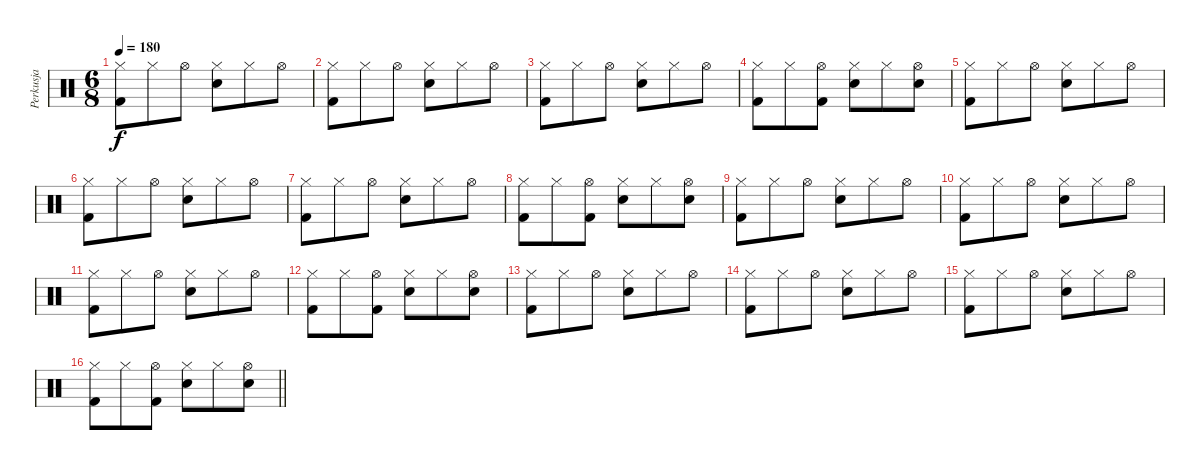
\track ("Perkusja" "Perkusja") {instrument percussion}
\staff {score}
\articulation defaults
\ts (6 8)
\tempo 180
\clef neutral
\ks c
("Hi-Hat (closed)" "Kick (hit) 2").8{dy f} "Hi-Hat (closed)".8 "Hi-Hat (open)".8 ("Hi-Hat (closed)" "Snare (hit) 2").8 "Hi-Hat (closed)".8 "Hi-Hat (open)".8 |
("Hi-Hat (closed)" "Kick (hit) 2").8 "Hi-Hat (closed)".8 "Hi-Hat (open)".8 ("Hi-Hat (closed)" "Snare (hit) 2").8 "Hi-Hat (closed)".8 "Hi-Hat (open)".8 |
("Hi-Hat (closed)" "Kick (hit) 2").8 "Hi-Hat (closed)".8 "Hi-Hat (open)".8 ("Hi-Hat (closed)" "Snare (hit) 2").8 "Hi-Hat (closed)".8 "Hi-Hat (open)".8 |
("Hi-Hat (closed)" "Kick (hit) 2").8 "Hi-Hat (closed)".8 ("Hi-Hat (open)" "Kick (hit) 2").8 ("Hi-Hat (closed)" "Snare (hit) 2").8 "Hi-Hat (closed)".8 ("Hi-Hat (open)" "Snare (hit) 2").8 |
("Hi-Hat (closed)" "Kick (hit) 2").8 "Hi-Hat (closed)".8 "Hi-Hat (open)".8 ("Hi-Hat (closed)" "Snare (hit) 2").8 "Hi-Hat (closed)".8 "Hi-Hat (open)".8 |
("Hi-Hat (closed)" "Kick (hit) 2").8 "Hi-Hat (closed)".8 "Hi-Hat (open)".8 ("Hi-Hat (closed)" "Snare (hit) 2").8 "Hi-Hat (closed)".8 "Hi-Hat (open)".8 |
("Hi-Hat (closed)" "Kick (hit) 2").8 "Hi-Hat (closed)".8 "Hi-Hat (open)".8 ("Hi-Hat (closed)" "Snare (hit) 2").8 "Hi-Hat (closed)".8 "Hi-Hat (open)".8 |
("Hi-Hat (closed)" "Kick (hit) 2").8 "Hi-Hat (closed)".8 ("Hi-Hat (open)" "Kick (hit) 2").8 ("Hi-Hat (closed)" "Snare (hit) 2").8 "Hi-Hat (closed)".8 ("Hi-Hat (open)" "Snare (hit) 2").8 |
("Hi-Hat (closed)" "Kick (hit) 2").8 "Hi-Hat (closed)".8 "Hi-Hat (open)".8 ("Hi-Hat (closed)" "Snare (hit) 2").8 "Hi-Hat (closed)".8 "Hi-Hat (open)".8 |
("Hi-Hat (closed)" "Kick (hit) 2").8 "Hi-Hat (closed)".8 "Hi-Hat (open)".8 ("Hi-Hat (closed)" "Snare (hit) 2").8 "Hi-Hat (closed)".8 "Hi-Hat (open)".8 |
("Hi-Hat (closed)" "Kick (hit) 2").8 "Hi-Hat (closed)".8 "Hi-Hat (open)".8 ("Hi-Hat (closed)" "Snare (hit) 2").8 "Hi-Hat (closed)".8 "Hi-Hat (open)".8 |
("Hi-Hat (closed)" "Kick (hit) 2").8 "Hi-Hat (closed)".8 ("Hi-Hat (open)" "Kick (hit) 2").8 ("Hi-Hat (closed)" "Snare (hit) 2").8 "Hi-Hat (closed)".8 ("Hi-Hat (open)" "Snare (hit) 2").8 |
("Hi-Hat (closed)" "Kick (hit) 2").8 "Hi-Hat (closed)".8 "Hi-Hat (open)".8 ("Hi-Hat (closed)" "Snare (hit) 2").8 "Hi-Hat (closed)".8 "Hi-Hat (open)".8 |
("Hi-Hat (closed)" "Kick (hit) 2").8 "Hi-Hat (closed)".8 "Hi-Hat (open)".8 ("Hi-Hat (closed)" "Snare (hit) 2").8 "Hi-Hat (closed)".8 "Hi-Hat (open)".8 |
("Hi-Hat (closed)" "Kick (hit) 2").8 "Hi-Hat (closed)".8 "Hi-Hat (open)".8 ("Hi-Hat (closed)" "Snare (hit) 2").8 "Hi-Hat (closed)".8 "Hi-Hat (open)".8 |
\barLineRight lightlight
("Hi-Hat (closed)" "Kick (hit) 2").8 "Hi-Hat (closed)".8 ("Hi-Hat (open)" "Kick (hit) 2").8 ("Hi-Hat (closed)" "Snare (hit) 2").8 "Hi-Hat (closed)".8 ("Hi-Hat (open)" "Snare (hit) 2").8
